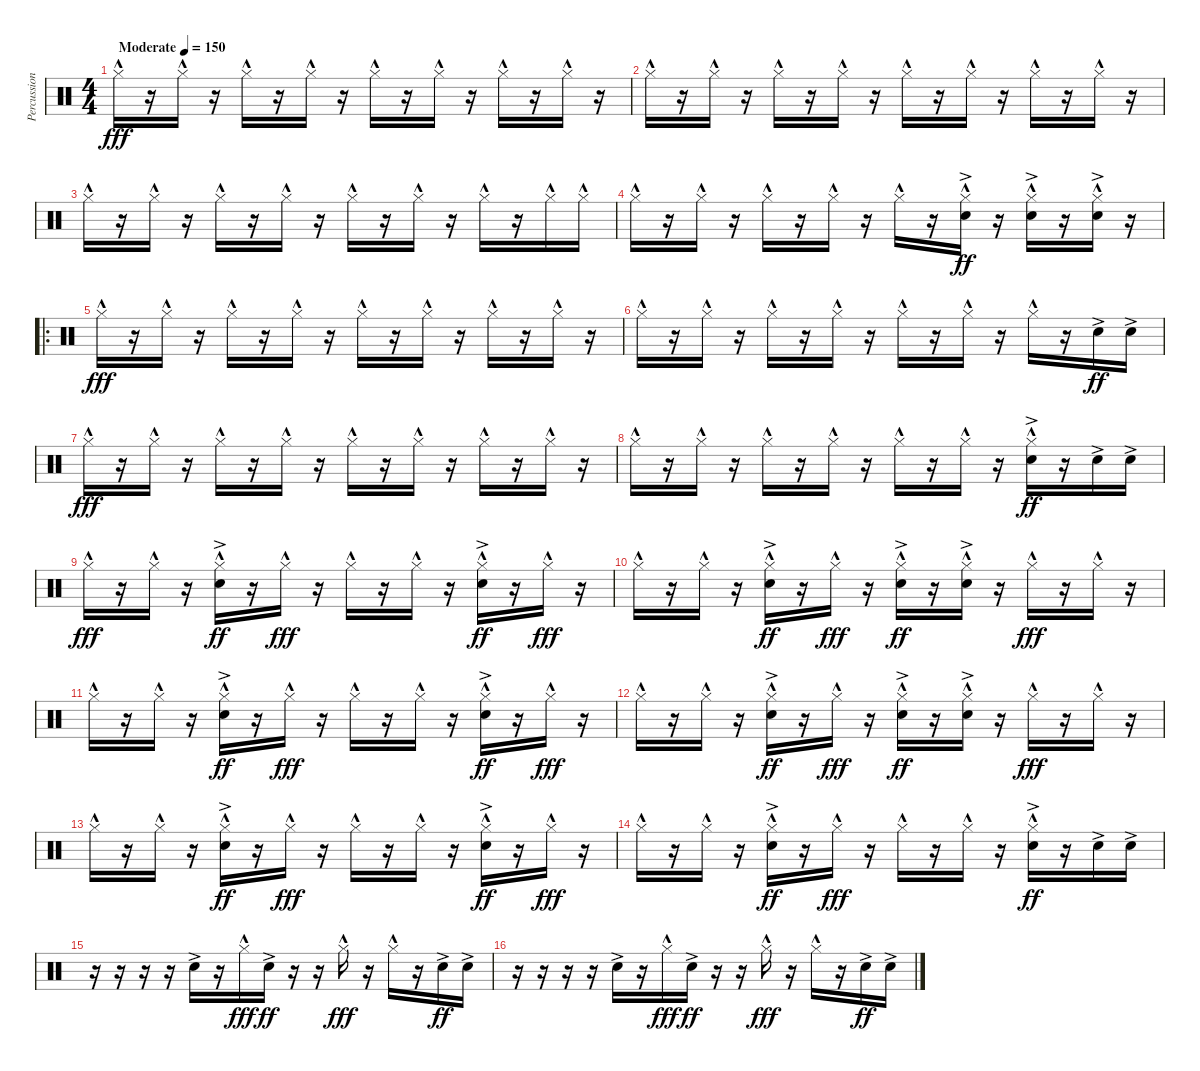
\track ("Percussion" "Percussion") {instrument percussion}
\staff {score}
\articulation defaults
\ts (4 4)
\tempo (150 "Moderate")
\clef neutral
\ks c "Hi-Hat (closed)"{hac}.16{dy fff}
r.16 "Hi-Hat (closed)"{hac}.16 r.16 "Hi-Hat (closed)"{hac}.16 r.16 "Hi-Hat (closed)"{hac}.16 r.16 "Hi-Hat (closed)"{hac}.16 r.16 "Hi-Hat (closed)"{hac}.16 r.16 "Hi-Hat (closed)"{hac}.16 r.16 "Hi-Hat (closed)"{hac}.16 r.16 |
"Hi-Hat (closed)"{hac}.16 r.16 "Hi-Hat (closed)"{hac}.16 r.16 "Hi-Hat (closed)"{hac}.16 r.16 "Hi-Hat (closed)"{hac}.16 r.16 "Hi-Hat (closed)"{hac}.16 r.16 "Hi-Hat (closed)"{hac}.16 r.16 "Hi-Hat (closed)"{hac}.16 r.16 "Hi-Hat (closed)"{hac}.16 r.16 |
"Hi-Hat (closed)"{hac}.16 r.16 "Hi-Hat (closed)"{hac}.16 r.16 "Hi-Hat (closed)"{hac}.16 r.16 "Hi-Hat (closed)"{hac}.16 r.16 "Hi-Hat (closed)"{hac}.16 r.16 "Hi-Hat (closed)"{hac}.16 r.16 "Hi-Hat (closed)"{hac}.16 r.16 "Hi-Hat (closed)"{hac}.16 "Hi-Hat (closed)"{hac}.16 |
"Hi-Hat (closed)"{hac}.16 r.16 "Hi-Hat (closed)"{hac}.16 r.16 "Hi-Hat (closed)"{hac}.16 r.16 "Hi-Hat (closed)"{hac}.16 r.16 "Hi-Hat (closed)"{hac}.16 r.16 ("Hi-Hat (closed)"{hac} "Snare (hit) 2"{ac}).16{dy ff} r.16 ("Hi-Hat (closed)"{hac} "Snare (hit) 2"{ac}).16 r.16 ("Hi-Hat (closed)"{hac} "Snare (hit) 2"{ac}).16 r.16 |
\ro "Hi-Hat (closed)"{hac}.16{dy fff}
r.16 "Hi-Hat (closed)"{hac}.16 r.16 "Hi-Hat (closed)"{hac}.16 r.16 "Hi-Hat (closed)"{hac}.16 r.16 "Hi-Hat (closed)"{hac}.16 r.16 "Hi-Hat (closed)"{hac}.16 r.16 "Hi-Hat (closed)"{hac}.16 r.16 "Hi-Hat (closed)"{hac}.16 r.16 |
"Hi-Hat (closed)"{hac}.16 r.16 "Hi-Hat (closed)"{hac}.16 r.16 "Hi-Hat (closed)"{hac}.16 r.16 "Hi-Hat (closed)"{hac}.16 r.16 "Hi-Hat (closed)"{hac}.16 r.16 "Hi-Hat (closed)"{hac}.16 r.16 "Hi-Hat (closed)"{hac}.16 r.16 "Snare (hit) 2"{ac}.16{dy ff} "Snare (hit) 2"{ac}.16 |
"Hi-Hat (closed)"{hac}.16{dy fff} r.16 "Hi-Hat (closed)"{hac}.16 r.16 "Hi-Hat (closed)"{hac}.16 r.16 "Hi-Hat (closed)"{hac}.16 r.16 "Hi-Hat (closed)"{hac}.16 r.16 "Hi-Hat (closed)"{hac}.16 r.16 "Hi-Hat (closed)"{hac}.16 r.16 "Hi-Hat (closed)"{hac}.16 r.16 |
"Hi-Hat (closed)"{hac}.16 r.16 "Hi-Hat (closed)"{hac}.16 r.16 "Hi-Hat (closed)"{hac}.16 r.16 "Hi-Hat (closed)"{hac}.16 r.16 "Hi-Hat (closed)"{hac}.16 r.16 "Hi-Hat (closed)"{hac}.16 r.16 ("Hi-Hat (closed)"{hac} "Snare (hit) 2"{ac}).16{dy ff} r.16 "Snare (hit) 2"{ac}.16 "Snare (hit) 2"{ac}.16 |
"Hi-Hat (closed)"{hac}.16{dy fff} r.16 "Hi-Hat (closed)"{hac}.16 r.16 ("Hi-Hat (closed)"{hac} "Snare (hit) 2"{ac}).16{dy ff} r.16 "Hi-Hat (closed)"{hac}.16{dy fff} r.16 "Hi-Hat (closed)"{hac}.16 r.16 "Hi-Hat (closed)"{hac}.16 r.16 ("Hi-Hat (closed)"{hac} "Snare (hit) 2"{ac}).16{dy ff} r.16 "Hi-Hat (closed)"{hac}.16{dy fff} r.16 |
"Hi-Hat (closed)"{hac}.16 r.16 "Hi-Hat (closed)"{hac}.16 r.16 ("Hi-Hat (closed)"{hac} "Snare (hit) 2"{ac}).16{dy ff} r.16 "Hi-Hat (closed)"{hac}.16{dy fff} r.16 ("Hi-Hat (closed)"{hac} "Snare (hit) 2"{ac}).16{dy ff} r.16 ("Hi-Hat (closed)"{hac} "Snare (hit) 2"{ac}).16 r.16 "Hi-Hat (closed)"{hac}.16{dy fff} r.16 "Hi-Hat (closed)"{hac}.16 r.16 |
"Hi-Hat (closed)"{hac}.16 r.16 "Hi-Hat (closed)"{hac}.16 r.16 ("Hi-Hat (closed)"{hac} "Snare (hit) 2"{ac}).16{dy ff} r.16 "Hi-Hat (closed)"{hac}.16{dy fff} r.16 "Hi-Hat (closed)"{hac}.16 r.16 "Hi-Hat (closed)"{hac}.16 r.16 ("Hi-Hat (closed)"{hac} "Snare (hit) 2"{ac}).16{dy ff} r.16 "Hi-Hat (closed)"{hac}.16{dy fff} r.16 |
"Hi-Hat (closed)"{hac}.16 r.16 "Hi-Hat (closed)"{hac}.16 r.16 ("Hi-Hat (closed)"{hac} "Snare (hit) 2"{ac}).16{dy ff} r.16 "Hi-Hat (closed)"{hac}.16{dy fff} r.16 ("Hi-Hat (closed)"{hac} "Snare (hit) 2"{ac}).16{dy ff} r.16 ("Hi-Hat (closed)"{hac} "Snare (hit) 2"{ac}).16 r.16 "Hi-Hat (closed)"{hac}.16{dy fff} r.16 "Hi-Hat (closed)"{hac}.16 r.16 |
"Hi-Hat (closed)"{hac}.16 r.16 "Hi-Hat (closed)"{hac}.16 r.16 ("Hi-Hat (closed)"{hac} "Snare (hit) 2"{ac}).16{dy ff} r.16 "Hi-Hat (closed)"{hac}.16{dy fff} r.16 "Hi-Hat (closed)"{hac}.16 r.16 "Hi-Hat (closed)"{hac}.16 r.16 ("Hi-Hat (closed)"{hac} "Snare (hit) 2"{ac}).16{dy ff} r.16 "Hi-Hat (closed)"{hac}.16{dy fff} r.16 |
"Hi-Hat (closed)"{hac}.16 r.16 "Hi-Hat (closed)"{hac}.16 r.16 ("Hi-Hat (closed)"{hac} "Snare (hit) 2"{ac}).16{dy ff} r.16 "Hi-Hat (closed)"{hac}.16{dy fff} r.16 "Hi-Hat (closed)"{hac}.16 r.16 "Hi-Hat (closed)"{hac}.16 r.16 ("Hi-Hat (closed)"{hac} "Snare (hit) 2"{ac}).16{dy ff} r.16 "Snare (hit) 2"{ac}.16 "Snare (hit) 2"{ac}.16 |
r.16 r.16 r.16 r.16 "Snare (hit) 2"{ac}.16 r.16 "Hi-Hat (closed)"{hac}.16{dy fff} "Snare (hit) 2"{ac}.16{dy ff} r.16 r.16 "Hi-Hat (closed)"{hac}.16{dy fff} r.16 "Hi-Hat (closed)"{hac}.16 r.16 "Snare (hit) 2"{ac}.16{dy ff} "Snare (hit) 2"{ac}.16 |
r.16 r.16 r.16 r.16 "Snare (hit) 2"{ac}.16 r.16 "Hi-Hat (closed)"{hac}.16{dy fff} "Snare (hit) 2"{ac}.16{dy ff} r.16 r.16 "Hi-Hat (closed)"{hac}.16{dy fff} r.16 "Hi-Hat (closed)"{hac}.16 r.16 "Snare (hit) 2"{ac}.16{dy ff} "Snare (hit) 2"{ac}.16
